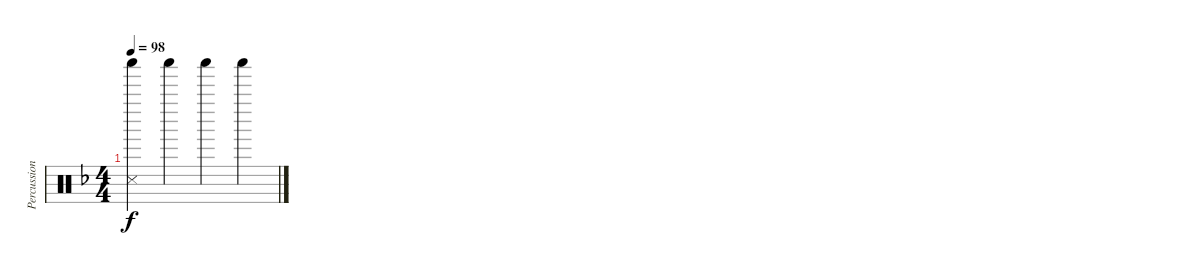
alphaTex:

\track ("Percussion" "Percussion") {instrument percussion}
\staff {score}
\articulation defaults
\ts (4 4)
\tempo 98
\clef neutral
\ks dminor
("Shaker (hit)" "Snare (side stick) 3").4{dy f} "Shaker (hit)".4 "Shaker (hit)".4 "Shaker (hit)".4
